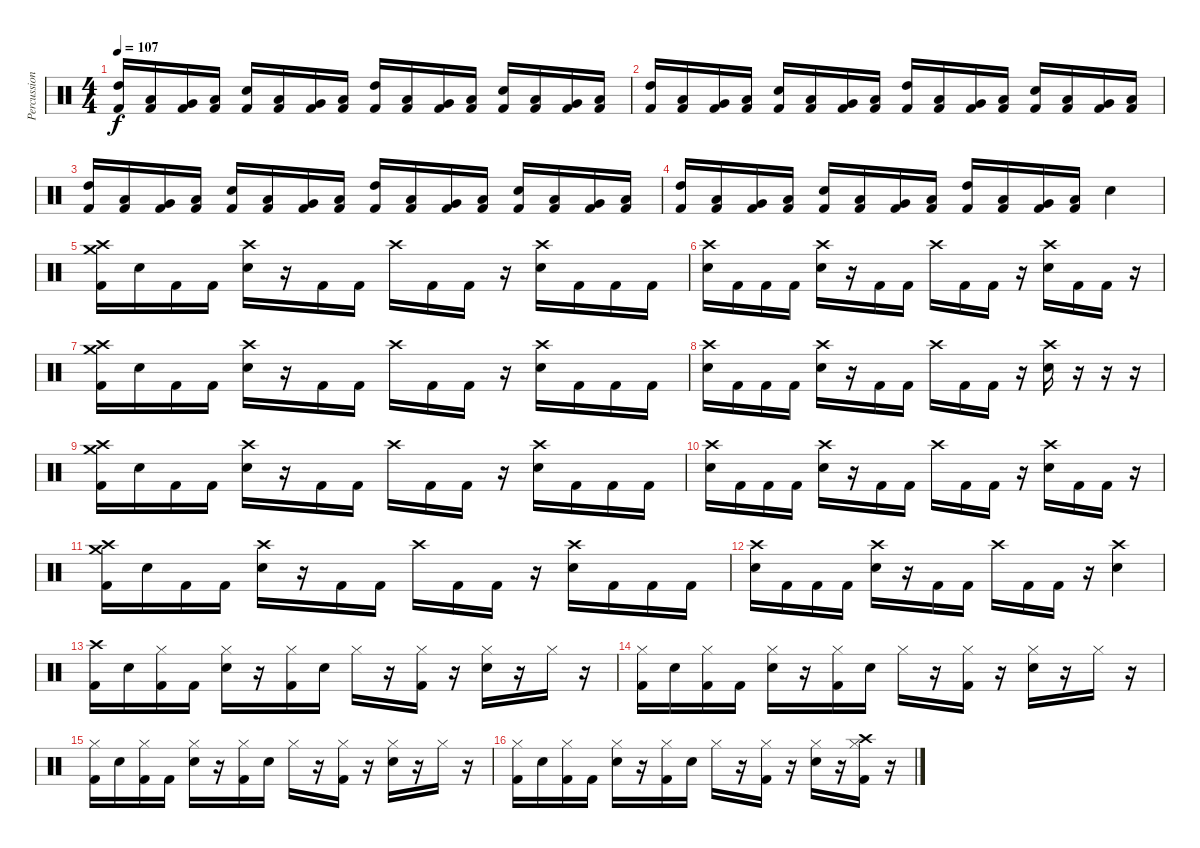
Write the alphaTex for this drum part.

\track ("Percussion" "Percussion") {instrument percussion}
\staff {score}
\articulation defaults
\ts (4 4)
\tempo 107
\clef neutral
\ks c
("High Tom (hit)" "Kick (hit) 2").16{dy f} ("Low Tom (hit)" "Kick (hit) 2").16 ("Very Low Tom (hit)" "Kick (hit) 2").16 ("Low Floor Tom (hit)" "Kick (hit) 2").16 ("Electric Snare (hit)" "Kick (hit) 2").16 ("Low Tom (hit)" "Kick (hit) 2").16 ("Very Low Tom (hit)" "Kick (hit) 2").16 ("Low Floor Tom (hit)" "Kick (hit) 2").16 ("High Tom (hit)" "Kick (hit) 2").16 ("Low Tom (hit)" "Kick (hit) 2").16 ("Very Low Tom (hit)" "Kick (hit) 2").16 ("Low Floor Tom (hit)" "Kick (hit) 2").16 ("Electric Snare (hit)" "Kick (hit) 2").16 ("Low Tom (hit)" "Kick (hit) 2").16 ("Very Low Tom (hit)" "Kick (hit) 2").16 ("Low Floor Tom (hit)" "Kick (hit) 2").16 |
("High Tom (hit)" "Kick (hit) 2").16 ("Low Tom (hit)" "Kick (hit) 2").16 ("Very Low Tom (hit)" "Kick (hit) 2").16 ("Low Floor Tom (hit)" "Kick (hit) 2").16 ("Electric Snare (hit)" "Kick (hit) 2").16 ("Low Tom (hit)" "Kick (hit) 2").16 ("Very Low Tom (hit)" "Kick (hit) 2").16 ("Low Floor Tom (hit)" "Kick (hit) 2").16 ("High Tom (hit)" "Kick (hit) 2").16 ("Low Tom (hit)" "Kick (hit) 2").16 ("Very Low Tom (hit)" "Kick (hit) 2").16 ("Low Floor Tom (hit)" "Kick (hit) 2").16 ("Electric Snare (hit)" "Kick (hit) 2").16 ("Low Tom (hit)" "Kick (hit) 2").16 ("Very Low Tom (hit)" "Kick (hit) 2").16 ("Low Floor Tom (hit)" "Kick (hit) 2").16 |
("High Tom (hit)" "Kick (hit) 2").16 ("Low Tom (hit)" "Kick (hit) 2").16 ("Very Low Tom (hit)" "Kick (hit) 2").16 ("Low Floor Tom (hit)" "Kick (hit) 2").16 ("Electric Snare (hit)" "Kick (hit) 2").16 ("Low Tom (hit)" "Kick (hit) 2").16 ("Very Low Tom (hit)" "Kick (hit) 2").16 ("Low Floor Tom (hit)" "Kick (hit) 2").16 ("High Tom (hit)" "Kick (hit) 2").16 ("Low Tom (hit)" "Kick (hit) 2").16 ("Very Low Tom (hit)" "Kick (hit) 2").16 ("Low Floor Tom (hit)" "Kick (hit) 2").16 ("Electric Snare (hit)" "Kick (hit) 2").16 ("Low Tom (hit)" "Kick (hit) 2").16 ("Very Low Tom (hit)" "Kick (hit) 2").16 ("Low Floor Tom (hit)" "Kick (hit) 2").16 |
("High Tom (hit)" "Kick (hit) 2").16 ("Low Tom (hit)" "Kick (hit) 2").16 ("Very Low Tom (hit)" "Kick (hit) 2").16 ("Low Floor Tom (hit)" "Kick (hit) 2").16 ("Electric Snare (hit)" "Kick (hit) 2").16 ("Low Tom (hit)" "Kick (hit) 2").16 ("Very Low Tom (hit)" "Kick (hit) 2").16 ("Low Floor Tom (hit)" "Kick (hit) 2").16 ("High Tom (hit)" "Kick (hit) 2").16 ("Low Tom (hit)" "Kick (hit) 2").16 ("Very Low Tom (hit)" "Kick (hit) 2").16 ("Low Floor Tom (hit)" "Kick (hit) 2").16 "Electric Snare (hit)".4 |
("Crash high (hit)" "Crash medium (hit)" "Kick (hit) 2").16 "Electric Snare (hit)".16 "Kick (hit) 2".16 "Kick (hit) 2".16 ("Crash high (hit)" "Electric Snare (hit)").16 r.16 "Kick (hit) 2".16 "Kick (hit) 2".16 "Crash high (hit)".16 "Kick (hit) 2".16 "Kick (hit) 2".16 r.16 ("Crash high (hit)" "Electric Snare (hit)").16 "Kick (hit) 2".16 "Kick (hit) 2".16 "Kick (hit) 2".16 |
("Crash high (hit)" "Electric Snare (hit)").16 "Kick (hit) 2".16 "Kick (hit) 2".16 "Kick (hit) 2".16 ("Crash high (hit)" "Electric Snare (hit)").16 r.16 "Kick (hit) 2".16 "Kick (hit) 2".16 "Crash high (hit)".16 "Kick (hit) 2".16 "Kick (hit) 2".16 r.16 ("Crash high (hit)" "Electric Snare (hit)").16 "Kick (hit) 2".16 "Kick (hit) 2".16 r.16 |
("Crash high (hit)" "Crash medium (hit)" "Kick (hit) 2").16 "Electric Snare (hit)".16 "Kick (hit) 2".16 "Kick (hit) 2".16 ("Crash high (hit)" "Electric Snare (hit)").16 r.16 "Kick (hit) 2".16 "Kick (hit) 2".16 "Crash high (hit)".16 "Kick (hit) 2".16 "Kick (hit) 2".16 r.16 ("Crash high (hit)" "Electric Snare (hit)").16 "Kick (hit) 2".16 "Kick (hit) 2".16 "Kick (hit) 2".16 |
("Crash high (hit)" "Electric Snare (hit)").16 "Kick (hit) 2".16 "Kick (hit) 2".16 "Kick (hit) 2".16 ("Crash high (hit)" "Electric Snare (hit)").16 r.16 "Kick (hit) 2".16 "Kick (hit) 2".16 "Crash high (hit)".16 "Kick (hit) 2".16 "Kick (hit) 2".16 r.16 ("Crash high (hit)" "Electric Snare (hit)").16 r.16 r.16 r.16 |
("Crash high (hit)" "Crash medium (hit)" "Kick (hit) 2").16 "Electric Snare (hit)".16 "Kick (hit) 2".16 "Kick (hit) 2".16 ("Crash high (hit)" "Electric Snare (hit)").16 r.16 "Kick (hit) 2".16 "Kick (hit) 2".16 "Crash high (hit)".16 "Kick (hit) 2".16 "Kick (hit) 2".16 r.16 ("Crash high (hit)" "Electric Snare (hit)").16 "Kick (hit) 2".16 "Kick (hit) 2".16 "Kick (hit) 2".16 |
("Crash high (hit)" "Electric Snare (hit)").16 "Kick (hit) 2".16 "Kick (hit) 2".16 "Kick (hit) 2".16 ("Crash high (hit)" "Electric Snare (hit)").16 r.16 "Kick (hit) 2".16 "Kick (hit) 2".16 "Crash high (hit)".16 "Kick (hit) 2".16 "Kick (hit) 2".16 r.16 ("Crash high (hit)" "Electric Snare (hit)").16 "Kick (hit) 2".16 "Kick (hit) 2".16 r.16 |
("Crash high (hit)" "Crash medium (hit)" "Kick (hit) 2").16 "Electric Snare (hit)".16 "Kick (hit) 2".16 "Kick (hit) 2".16 ("Crash high (hit)" "Electric Snare (hit)").16 r.16 "Kick (hit) 2".16 "Kick (hit) 2".16 "Crash high (hit)".16 "Kick (hit) 2".16 "Kick (hit) 2".16 r.16 ("Crash high (hit)" "Electric Snare (hit)").16 "Kick (hit) 2".16 "Kick (hit) 2".16 "Kick (hit) 2".16 |
("Crash high (hit)" "Electric Snare (hit)").16 "Kick (hit) 2".16 "Kick (hit) 2".16 "Kick (hit) 2".16 ("Crash high (hit)" "Electric Snare (hit)").16 r.16 "Kick (hit) 2".16 "Kick (hit) 2".16 "Crash high (hit)".16 "Kick (hit) 2".16 "Kick (hit) 2".16 r.16 ("Crash high (hit)" "Electric Snare (hit)").4 |
("Crash high (hit)" "Kick (hit) 2").16 "Electric Snare (hit)".16 ("Hi-Hat (closed)" "Kick (hit) 2").16 "Kick (hit) 2".16 ("Hi-Hat (closed)" "Electric Snare (hit)").16 r.16 ("Hi-Hat (closed)" "Kick (hit) 2").16 "Electric Snare (hit)".16 "Hi-Hat (closed)".16 r.16 ("Hi-Hat (closed)" "Kick (hit) 2").16 r.16 ("Hi-Hat (closed)" "Electric Snare (hit)").16 r.16 "Hi-Hat (closed)".16 r.16 |
("Hi-Hat (closed)" "Kick (hit) 2").16 "Electric Snare (hit)".16 ("Hi-Hat (closed)" "Kick (hit) 2").16 "Kick (hit) 2".16 ("Hi-Hat (closed)" "Electric Snare (hit)").16 r.16 ("Hi-Hat (closed)" "Kick (hit) 2").16 "Electric Snare (hit)".16 "Hi-Hat (closed)".16 r.16 ("Hi-Hat (closed)" "Kick (hit) 2").16 r.16 ("Hi-Hat (closed)" "Electric Snare (hit)").16 r.16 "Hi-Hat (closed)".16 r.16 |
("Hi-Hat (closed)" "Kick (hit) 2").16 "Electric Snare (hit)".16 ("Hi-Hat (closed)" "Kick (hit) 2").16 "Kick (hit) 2".16 ("Hi-Hat (closed)" "Electric Snare (hit)").16 r.16 ("Hi-Hat (closed)" "Kick (hit) 2").16 "Electric Snare (hit)".16 "Hi-Hat (closed)".16 r.16 ("Hi-Hat (closed)" "Kick (hit) 2").16 r.16 ("Hi-Hat (closed)" "Electric Snare (hit)").16 r.16 "Hi-Hat (closed)".16 r.16 |
("Hi-Hat (closed)" "Kick (hit) 2").16 "Electric Snare (hit)".16 ("Hi-Hat (closed)" "Kick (hit) 2").16 "Kick (hit) 2".16 ("Hi-Hat (closed)" "Electric Snare (hit)").16 r.16 ("Hi-Hat (closed)" "Kick (hit) 2").16 "Electric Snare (hit)".16 "Hi-Hat (closed)".16 r.16 ("Hi-Hat (closed)" "Kick (hit) 2").16 r.16 ("Hi-Hat (closed)" "Electric Snare (hit)").16 r.16 ("Crash high (hit)" "Hi-Hat (closed)" "Kick (hit) 2").16 r.16
